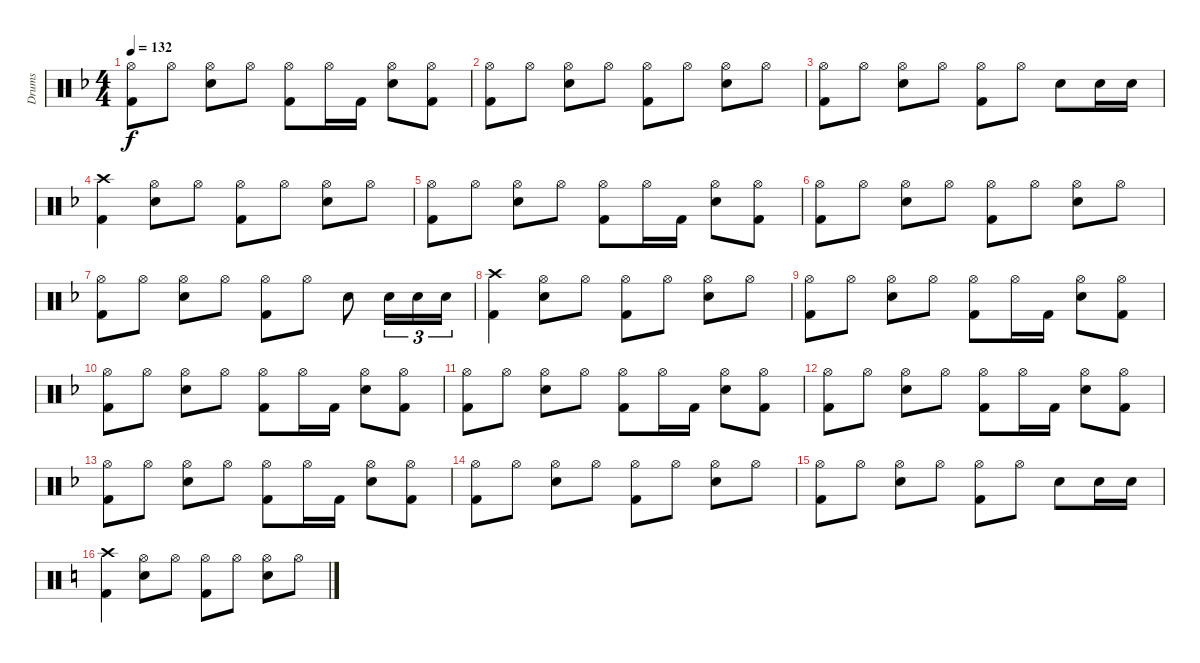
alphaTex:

\track ("Drums " "Drums ") {instrument percussion}
\staff {score}
\articulation defaults
\ts (4 4)
\tempo 132
\clef neutral
\ks dminor
("Kick (hit) 2" "Hi-Hat (open)").8{dy f} "Hi-Hat (open)".8 ("Snare (hit) 2" "Hi-Hat (open)").8 "Hi-Hat (open)".8 ("Kick (hit) 2" "Hi-Hat (open)").8 "Hi-Hat (open)".16 "Kick (hit) 2".16 ("Snare (hit) 2" "Hi-Hat (open)").8 ("Kick (hit) 2" "Hi-Hat (open)").8 |
("Kick (hit) 2" "Hi-Hat (open)").8 "Hi-Hat (open)".8 ("Snare (hit) 2" "Hi-Hat (open)").8 "Hi-Hat (open)".8 ("Kick (hit) 2" "Hi-Hat (open)").8 "Hi-Hat (open)".8 ("Snare (hit) 2" "Hi-Hat (open)").8 "Hi-Hat (open)".8 |
("Kick (hit) 2" "Hi-Hat (open)").8 "Hi-Hat (open)".8 ("Snare (hit) 2" "Hi-Hat (open)").8 "Hi-Hat (open)".8 ("Kick (hit) 2" "Hi-Hat (open)").8 "Hi-Hat (open)".8 "Snare (hit) 2".8 "Snare (hit) 2".16 "Snare (hit) 2".16 |
("Kick (hit) 2" "Crash high (hit)").4 ("Snare (hit) 2" "Hi-Hat (open)").8 "Hi-Hat (open)".8 ("Kick (hit) 2" "Hi-Hat (open)").8 "Hi-Hat (open)".8 ("Snare (hit) 2" "Hi-Hat (open)").8 "Hi-Hat (open)".8 |
("Kick (hit) 2" "Hi-Hat (open)").8 "Hi-Hat (open)".8 ("Snare (hit) 2" "Hi-Hat (open)").8 "Hi-Hat (open)".8 ("Kick (hit) 2" "Hi-Hat (open)").8 "Hi-Hat (open)".16 "Kick (hit) 2".16 ("Snare (hit) 2" "Hi-Hat (open)").8 ("Kick (hit) 2" "Hi-Hat (open)").8 |
("Kick (hit) 2" "Hi-Hat (open)").8 "Hi-Hat (open)".8 ("Snare (hit) 2" "Hi-Hat (open)").8 "Hi-Hat (open)".8 ("Kick (hit) 2" "Hi-Hat (open)").8 "Hi-Hat (open)".8 ("Snare (hit) 2" "Hi-Hat (open)").8 "Hi-Hat (open)".8 |
("Kick (hit) 2" "Hi-Hat (open)").8 "Hi-Hat (open)".8 ("Snare (hit) 2" "Hi-Hat (open)").8 "Hi-Hat (open)".8 ("Kick (hit) 2" "Hi-Hat (open)").8 "Hi-Hat (open)".8 "Snare (hit) 2".8 "Snare (hit) 2".16{tu (3 2)} "Snare (hit) 2".16{tu (3 2)} "Snare (hit) 2".16{tu (3 2)} |
("Kick (hit) 2" "Crash high (hit)").4 ("Snare (hit) 2" "Hi-Hat (open)").8 "Hi-Hat (open)".8 ("Kick (hit) 2" "Hi-Hat (open)").8 "Hi-Hat (open)".8 ("Snare (hit) 2" "Hi-Hat (open)").8 "Hi-Hat (open)".8 |
("Kick (hit) 2" "Hi-Hat (open)").8 "Hi-Hat (open)".8 ("Snare (hit) 2" "Hi-Hat (open)").8 "Hi-Hat (open)".8 ("Kick (hit) 2" "Hi-Hat (open)").8 "Hi-Hat (open)".16 "Kick (hit) 2".16 ("Snare (hit) 2" "Hi-Hat (open)").8 ("Kick (hit) 2" "Hi-Hat (open)").8 |
("Kick (hit) 2" "Hi-Hat (open)").8 "Hi-Hat (open)".8 ("Snare (hit) 2" "Hi-Hat (open)").8 "Hi-Hat (open)".8 ("Kick (hit) 2" "Hi-Hat (open)").8 "Hi-Hat (open)".16 "Kick (hit) 2".16 ("Snare (hit) 2" "Hi-Hat (open)").8 ("Kick (hit) 2" "Hi-Hat (open)").8 |
("Kick (hit) 2" "Hi-Hat (open)").8 "Hi-Hat (open)".8 ("Snare (hit) 2" "Hi-Hat (open)").8 "Hi-Hat (open)".8 ("Kick (hit) 2" "Hi-Hat (open)").8 "Hi-Hat (open)".16 "Kick (hit) 2".16 ("Snare (hit) 2" "Hi-Hat (open)").8 ("Kick (hit) 2" "Hi-Hat (open)").8 |
("Kick (hit) 2" "Hi-Hat (open)").8 "Hi-Hat (open)".8 ("Snare (hit) 2" "Hi-Hat (open)").8 "Hi-Hat (open)".8 ("Kick (hit) 2" "Hi-Hat (open)").8 "Hi-Hat (open)".16 "Kick (hit) 2".16 ("Snare (hit) 2" "Hi-Hat (open)").8 ("Kick (hit) 2" "Hi-Hat (open)").8 |
("Kick (hit) 2" "Hi-Hat (open)").8 "Hi-Hat (open)".8 ("Snare (hit) 2" "Hi-Hat (open)").8 "Hi-Hat (open)".8 ("Kick (hit) 2" "Hi-Hat (open)").8 "Hi-Hat (open)".16 "Kick (hit) 2".16 ("Snare (hit) 2" "Hi-Hat (open)").8 ("Kick (hit) 2" "Hi-Hat (open)").8 |
("Kick (hit) 2" "Hi-Hat (open)").8 "Hi-Hat (open)".8 ("Snare (hit) 2" "Hi-Hat (open)").8 "Hi-Hat (open)".8 ("Kick (hit) 2" "Hi-Hat (open)").8 "Hi-Hat (open)".8 ("Snare (hit) 2" "Hi-Hat (open)").8 "Hi-Hat (open)".8 |
("Kick (hit) 2" "Hi-Hat (open)").8 "Hi-Hat (open)".8 ("Snare (hit) 2" "Hi-Hat (open)").8 "Hi-Hat (open)".8 ("Kick (hit) 2" "Hi-Hat (open)").8 "Hi-Hat (open)".8 "Snare (hit) 2".8 "Snare (hit) 2".16 "Snare (hit) 2".16 |
\ks aminor
("Kick (hit) 2" "Crash high (hit)").4 ("Snare (hit) 2" "Hi-Hat (open)").8 "Hi-Hat (open)".8 ("Kick (hit) 2" "Hi-Hat (open)").8 "Hi-Hat (open)".8 ("Snare (hit) 2" "Hi-Hat (open)").8 "Hi-Hat (open)".8
